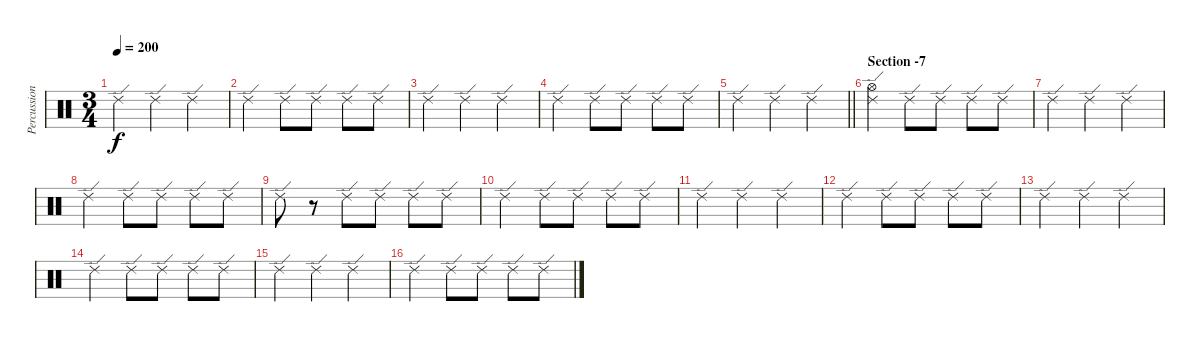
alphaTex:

\track ("Percussions" "Percussion") {instrument percussion}
\staff {score}
\articulation defaults
\ts (3 4)
\tempo 200
\clef neutral
\ks c "Ride (edge) 2".4{dy f} "Ride (edge) 2".4 "Ride (edge) 2".4
|
"Ride (edge) 2".4 "Ride (edge) 2".8 "Ride (edge) 2".8 "Ride (edge) 2".8 "Ride (edge) 2".8 |
"Ride (edge) 2".4 "Ride (edge) 2".4 "Ride (edge) 2".4 |
"Ride (edge) 2".4 "Ride (edge) 2".8 "Ride (edge) 2".8 "Ride (edge) 2".8 "Ride (edge) 2".8 |
\barLineRight lightlight "Ride (edge) 2".4 "Ride (edge) 2".4 "Ride (edge) 2".4
|
\section ("" "Section -7")
("Hi-Hat (open)" "Ride (edge) 2").4 "Ride (edge) 2".8 "Ride (edge) 2".8 "Ride (edge) 2".8 "Ride (edge) 2".8 |
"Ride (edge) 2".4 "Ride (edge) 2".4 "Ride (edge) 2".4 |
"Ride (edge) 2".4 "Ride (edge) 2".8 "Ride (edge) 2".8 "Ride (edge) 2".8 "Ride (edge) 2".8 |
"Ride (edge) 2".8 r.8 "Ride (edge) 2".8 "Ride (edge) 2".8 "Ride (edge) 2".8 "Ride (edge) 2".8 |
"Ride (edge) 2".4 "Ride (edge) 2".8 "Ride (edge) 2".8 "Ride (edge) 2".8 "Ride (edge) 2".8 |
"Ride (edge) 2".4 "Ride (edge) 2".4 "Ride (edge) 2".4 |
"Ride (edge) 2".4 "Ride (edge) 2".8 "Ride (edge) 2".8 "Ride (edge) 2".8 "Ride (edge) 2".8 |
"Ride (edge) 2".4 "Ride (edge) 2".4 "Ride (edge) 2".4 |
"Ride (edge) 2".4 "Ride (edge) 2".8 "Ride (edge) 2".8 "Ride (edge) 2".8 "Ride (edge) 2".8 |
"Ride (edge) 2".4 "Ride (edge) 2".4 "Ride (edge) 2".4 |
"Ride (edge) 2".4 "Ride (edge) 2".8 "Ride (edge) 2".8 "Ride (edge) 2".8 "Ride (edge) 2".8
